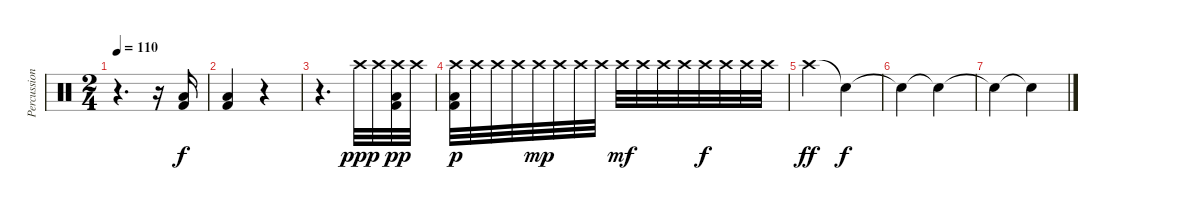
\track ("Percussions" "Percussion") {instrument percussion}
\staff {score}
\articulation defaults
\ts (2 4)
\tempo 110
\clef neutral
\ks c
r.4{d dy f} r.16 ("Low Floor Tom (hit)" "Kick (hit) 2").16 |
("Low Floor Tom (hit)" "Kick (hit) 2").4 r.4 |
r.4{d} "Crash high (hit)".32{dy ppp} "Crash high (hit)".32 ("Crash high (hit)" "Low Floor Tom (hit)" "Kick (hit) 2").32{dy pp} "Crash high (hit)".32 |
("Crash high (hit)" "Low Floor Tom (hit)" "Kick (hit) 2").32{dy p} "Crash high (hit)".32 "Crash high (hit)".32 "Crash high (hit)".32 "Crash high (hit)".32{dy mp} "Crash high (hit)".32 "Crash high (hit)".32 "Crash high (hit)".32 "Crash high (hit)".32{dy mf} "Crash high (hit)".32 "Crash high (hit)".32 "Crash high (hit)".32 "Crash high (hit)".32{dy f} "Crash high (hit)".32 "Crash high (hit)".32 "Crash high (hit)".32 |
"Crash high (hit)".4{dy ff} "Snare (hit)"{t}.4{dy f} |
"Snare (hit)"{t}.4 "Snare (hit)"{t}.4 |
"Snare (hit)"{t}.4 "Snare (hit)"{t}.4
